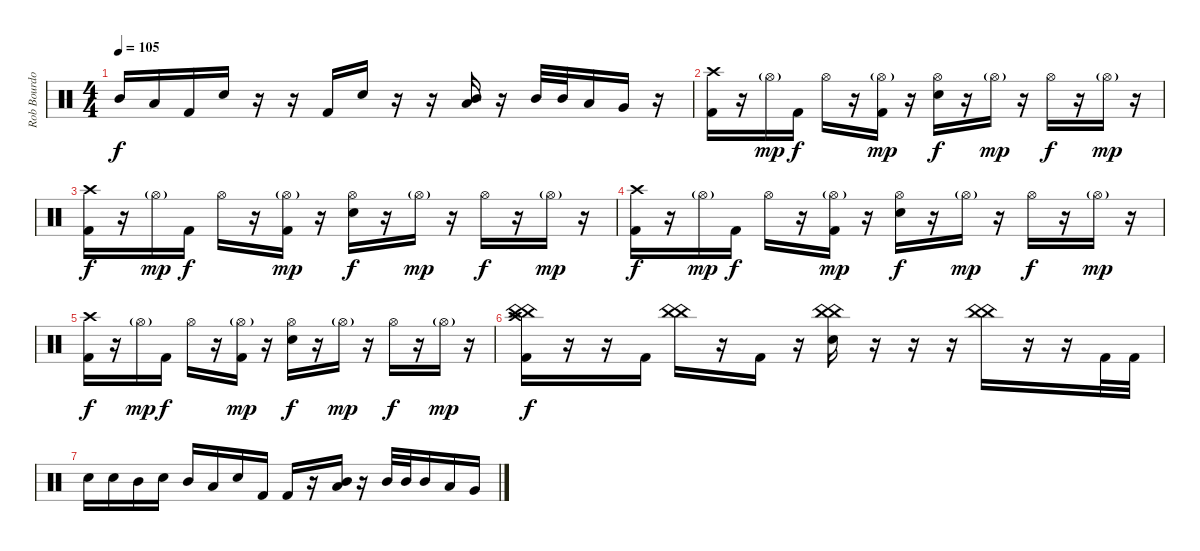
\track ("Rob Bourdon (Drums)" "Rob Bourdo") {instrument percussion}
\staff {score}
\articulation defaults
\ts (4 4)
\tempo 105
\clef neutral
\ks c "Mid Tom (hit)".16{dy f} "Low Tom (hit)".16 "Kick (hit) 2".16 "Electric Snare (hit)".16
r.16 r.16 "Kick (hit) 2".16 "Electric Snare (hit)".16 r.16 r.16 ("Mid Tom (hit)" "Low Tom (hit)").16 r.16 "Mid Tom (hit)".32 "Mid Tom (hit)".32 "Low Tom (hit)".16 "Very Low Tom (hit)".16 r.16 |
("Crash high (hit)" "Kick (hit) 2").16 r.16 "Hi-Hat (open)"{g}.16{dy mp} "Kick (hit) 2".16{dy f} "Hi-Hat (open)".16 r.16 ("Hi-Hat (open)"{g} "Kick (hit) 2").16{dy mp} r.16 ("Hi-Hat (open)" "Electric Snare (hit)").16{dy f} r.16 "Hi-Hat (open)"{g}.16{dy mp} r.16 "Hi-Hat (open)".16{dy f} r.16 "Hi-Hat (open)"{g}.16{dy mp} r.16 |
("Crash high (hit)" "Kick (hit) 2").16{dy f} r.16 "Hi-Hat (open)"{g}.16{dy mp} "Kick (hit) 2".16{dy f} "Hi-Hat (open)".16 r.16 ("Hi-Hat (open)"{g} "Kick (hit) 2").16{dy mp} r.16 ("Hi-Hat (open)" "Electric Snare (hit)").16{dy f} r.16 "Hi-Hat (open)"{g}.16{dy mp} r.16 "Hi-Hat (open)".16{dy f} r.16 "Hi-Hat (open)"{g}.16{dy mp} r.16 |
("Crash high (hit)" "Kick (hit) 2").16{dy f} r.16 "Hi-Hat (open)"{g}.16{dy mp} "Kick (hit) 2".16{dy f} "Hi-Hat (open)".16 r.16 ("Hi-Hat (open)"{g} "Kick (hit) 2").16{dy mp} r.16 ("Hi-Hat (open)" "Electric Snare (hit)").16{dy f} r.16 "Hi-Hat (open)"{g}.16{dy mp} r.16 "Hi-Hat (open)".16{dy f} r.16 "Hi-Hat (open)"{g}.16{dy mp} r.16 |
("Crash high (hit)" "Kick (hit) 2").16{dy f} r.16 "Hi-Hat (open)"{g}.16{dy mp} "Kick (hit) 2".16{dy f} "Hi-Hat (open)".16 r.16 ("Hi-Hat (open)"{g} "Kick (hit) 2").16{dy mp} r.16 ("Hi-Hat (open)" "Electric Snare (hit)").16{dy f} r.16 "Hi-Hat (open)"{g}.16{dy mp} r.16 "Hi-Hat (open)".16{dy f} r.16 "Hi-Hat (open)"{g}.16{dy mp} r.16 |
("Crash high (hit)" "China (hit)" "China (hit)" "Kick (hit) 2").16{dy f} r.16 r.16 "Kick (hit) 2".16 ("China (hit)" "China (hit)").16 r.16 "Kick (hit) 2".16 r.16 ("China (hit)" "China (hit)" "Electric Snare (hit)").16 r.16 r.16 r.16 ("China (hit)" "China (hit)").16 r.16 r.16 "Kick (hit) 2".32 "Kick (hit) 2".32 |
"Electric Snare (hit)".16 "Electric Snare (hit)".16 "Mid Tom (hit)".16 "Electric Snare (hit)".16 "Mid Tom (hit)".16 "Low Tom (hit)".16 "Electric Snare (hit)".16 "Kick (hit) 2".16 "Kick (hit) 2".16 r.16 ("Mid Tom (hit)" "Low Tom (hit)").16 r.16 "Mid Tom (hit)".32 "Mid Tom (hit)".32 "Mid Tom (hit)".16 "Low Tom (hit)".16 "Very Low Tom (hit)".16
